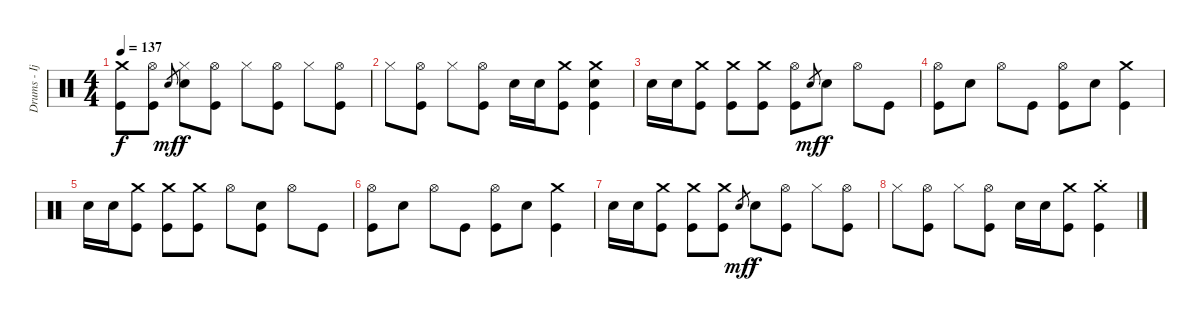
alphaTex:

\track ("Drums - Ijichi" "Drums - Ij") {instrument percussion}
\staff {score}
\articulation defaults
\ts (4 4)
\tempo 137
\clef neutral
\ks c
("Crash medium (hit)" "Kick (hit)").8{dy f} ("Hi-Hat (open)" "Kick (hit)").8 "Electric Snare (hit)".8{gr dy mf} ("Hi-Hat (closed)" "Electric Snare (hit)").8{dy f} ("Hi-Hat (open)" "Kick (hit)").8 "Hi-Hat (closed)".8 ("Hi-Hat (open)" "Kick (hit)").8 "Hi-Hat (closed)".8 ("Hi-Hat (open)" "Kick (hit)").8 |
"Hi-Hat (closed)".8 ("Hi-Hat (open)" "Kick (hit)").8 "Hi-Hat (closed)".8 ("Hi-Hat (open)" "Kick (hit)").8 "Electric Snare (hit)".16 "Electric Snare (hit)".16 ("Crash medium (hit)" "Kick (hit)").8 ("Crash medium (hit)" "Electric Snare (hit)" "Kick (hit)").4 |
"Electric Snare (hit)".16 "Electric Snare (hit)".16 ("Crash medium (hit)" "Kick (hit)").8 ("Crash medium (hit)" "Kick (hit)").8 ("Crash medium (hit)" "Kick (hit)").8 ("Hi-Hat (open)" "Kick (hit)").8 "Electric Snare (hit)".8{gr dy mf} "Electric Snare (hit)".8{dy f} "Hi-Hat (open)".8 "Kick (hit)".8 |
("Hi-Hat (open)" "Kick (hit)").8 "Electric Snare (hit)".8 "Hi-Hat (open)".8 "Kick (hit)".8 ("Hi-Hat (open)" "Kick (hit)").8 "Electric Snare (hit)".8 ("Crash medium (hit)" "Kick (hit)").4 |
"Electric Snare (hit)".16 "Electric Snare (hit)".16 ("Crash medium (hit)" "Kick (hit)").8 ("Crash medium (hit)" "Kick (hit)").8 ("Crash medium (hit)" "Kick (hit)").8 "Hi-Hat (open)".8 ("Electric Snare (hit)" "Kick (hit)").8 "Hi-Hat (open)".8 "Kick (hit)".8 |
("Hi-Hat (open)" "Kick (hit)").8 "Electric Snare (hit)".8 "Hi-Hat (open)".8 "Kick (hit)".8 ("Hi-Hat (open)" "Kick (hit)").8 "Electric Snare (hit)".8 ("Crash medium (hit)" "Kick (hit)").4 |
"Electric Snare (hit)".16 "Electric Snare (hit)".16 ("Crash medium (hit)" "Kick (hit)").8 ("Crash medium (hit)" "Kick (hit)").8 ("Crash medium (hit)" "Kick (hit)").8 "Electric Snare (hit)".8{gr dy mf} "Electric Snare (hit)".8{dy f} ("Hi-Hat (open)" "Kick (hit)").8 "Hi-Hat (closed)".8 ("Hi-Hat (open)" "Kick (hit)").8 |
"Hi-Hat (closed)".8 ("Hi-Hat (open)" "Kick (hit)").8 "Hi-Hat (closed)".8 ("Hi-Hat (open)" "Kick (hit)").8 "Electric Snare (hit)".16 "Electric Snare (hit)".16 ("Crash medium (hit)" "Kick (hit)").8 ("Crash medium (hit)"{st} "Kick (hit)").4
